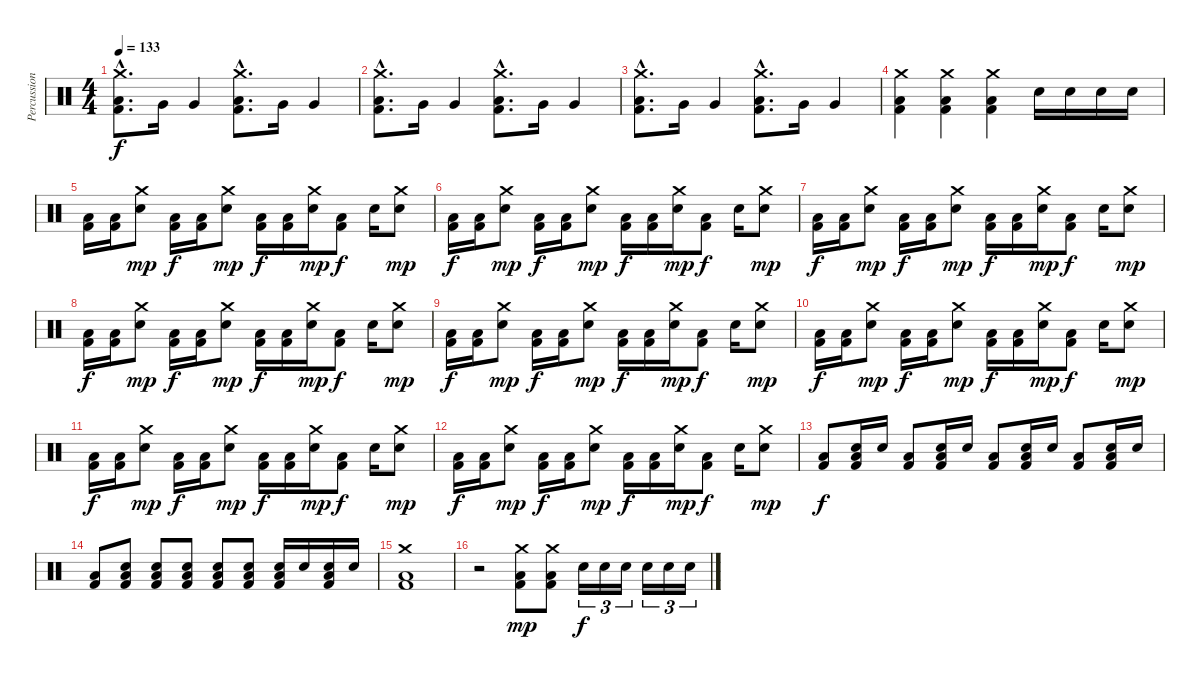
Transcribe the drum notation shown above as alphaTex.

\track ("Percussions" "Percussion") {instrument percussion}
\staff {score}
\articulation defaults
\ts (4 4)
\tempo 133
\clef neutral
\ks c
("Kick (hit) 2"{hac} "Low Floor Tom (hit)"{hac} "Crash medium (hit)"{hac}).8{d dy f} "Very Low Tom (hit)".16 "Very Low Tom (hit)".4 ("Kick (hit) 2"{hac} "Low Floor Tom (hit)"{hac} "Crash medium (hit)"{hac}).8{d} "Very Low Tom (hit)".16 "Very Low Tom (hit)".4 |
("Kick (hit) 2"{hac} "Low Floor Tom (hit)"{hac} "Crash medium (hit)"{hac}).8{d} "Very Low Tom (hit)".16 "Very Low Tom (hit)".4 ("Kick (hit) 2"{hac} "Low Floor Tom (hit)"{hac} "Crash medium (hit)"{hac}).8{d} "Very Low Tom (hit)".16 "Very Low Tom (hit)".4 |
("Kick (hit) 2"{hac} "Low Floor Tom (hit)"{hac} "Crash medium (hit)"{hac}).8{d} "Very Low Tom (hit)".16 "Very Low Tom (hit)".4 ("Kick (hit) 2"{hac} "Low Floor Tom (hit)"{hac} "Crash medium (hit)"{hac}).8{d} "Very Low Tom (hit)".16 "Very Low Tom (hit)".4 |
("Kick (hit) 2" "Low Floor Tom (hit)" "Crash medium (hit)").4 ("Kick (hit) 2" "Low Floor Tom (hit)" "Crash medium (hit)").4 ("Kick (hit) 2" "Low Floor Tom (hit)" "Crash medium (hit)").4 "Electric Snare (hit)".16 "Electric Snare (hit)".16 "Electric Snare (hit)".16 "Electric Snare (hit)".16 |
("Kick (hit) 2" "Low Floor Tom (hit)").16 ("Kick (hit) 2" "Low Floor Tom (hit)").16 ("Electric Snare (hit)" "Crash medium (hit)").8{dy mp} ("Kick (hit) 2" "Low Floor Tom (hit)").16{dy f} ("Kick (hit) 2" "Low Floor Tom (hit)").16 ("Electric Snare (hit)" "Crash medium (hit)").8{dy mp} ("Kick (hit) 2" "Low Floor Tom (hit)").16{dy f} ("Kick (hit) 2" "Low Floor Tom (hit)").16 ("Electric Snare (hit)" "Crash medium (hit)").16{dy mp} ("Kick (hit) 2" "Low Floor Tom (hit)").8{dy f} "Electric Snare (hit)".16 ("Electric Snare (hit)" "Crash medium (hit)").8{dy mp} |
("Kick (hit) 2" "Low Floor Tom (hit)").16{dy f} ("Kick (hit) 2" "Low Floor Tom (hit)").16 ("Electric Snare (hit)" "Crash medium (hit)").8{dy mp} ("Kick (hit) 2" "Low Floor Tom (hit)").16{dy f} ("Kick (hit) 2" "Low Floor Tom (hit)").16 ("Electric Snare (hit)" "Crash medium (hit)").8{dy mp} ("Kick (hit) 2" "Low Floor Tom (hit)").16{dy f} ("Kick (hit) 2" "Low Floor Tom (hit)").16 ("Electric Snare (hit)" "Crash medium (hit)").16{dy mp} ("Kick (hit) 2" "Low Floor Tom (hit)").8{dy f} "Electric Snare (hit)".16 ("Electric Snare (hit)" "Crash medium (hit)").8{dy mp} |
("Kick (hit) 2" "Low Floor Tom (hit)").16{dy f} ("Kick (hit) 2" "Low Floor Tom (hit)").16 ("Electric Snare (hit)" "Crash medium (hit)").8{dy mp} ("Kick (hit) 2" "Low Floor Tom (hit)").16{dy f} ("Kick (hit) 2" "Low Floor Tom (hit)").16 ("Electric Snare (hit)" "Crash medium (hit)").8{dy mp} ("Kick (hit) 2" "Low Floor Tom (hit)").16{dy f} ("Kick (hit) 2" "Low Floor Tom (hit)").16 ("Electric Snare (hit)" "Crash medium (hit)").16{dy mp} ("Kick (hit) 2" "Low Floor Tom (hit)").8{dy f} "Electric Snare (hit)".16 ("Electric Snare (hit)" "Crash medium (hit)").8{dy mp} |
("Kick (hit) 2" "Low Floor Tom (hit)").16{dy f} ("Kick (hit) 2" "Low Floor Tom (hit)").16 ("Electric Snare (hit)" "Crash medium (hit)").8{dy mp} ("Kick (hit) 2" "Low Floor Tom (hit)").16{dy f} ("Kick (hit) 2" "Low Floor Tom (hit)").16 ("Electric Snare (hit)" "Crash medium (hit)").8{dy mp} ("Kick (hit) 2" "Low Floor Tom (hit)").16{dy f} ("Kick (hit) 2" "Low Floor Tom (hit)").16 ("Electric Snare (hit)" "Crash medium (hit)").16{dy mp} ("Kick (hit) 2" "Low Floor Tom (hit)").8{dy f} "Electric Snare (hit)".16 ("Electric Snare (hit)" "Crash medium (hit)").8{dy mp} |
("Kick (hit) 2" "Low Floor Tom (hit)").16{dy f} ("Kick (hit) 2" "Low Floor Tom (hit)").16 ("Electric Snare (hit)" "Crash medium (hit)").8{dy mp} ("Kick (hit) 2" "Low Floor Tom (hit)").16{dy f} ("Kick (hit) 2" "Low Floor Tom (hit)").16 ("Electric Snare (hit)" "Crash medium (hit)").8{dy mp} ("Kick (hit) 2" "Low Floor Tom (hit)").16{dy f} ("Kick (hit) 2" "Low Floor Tom (hit)").16 ("Electric Snare (hit)" "Crash medium (hit)").16{dy mp} ("Kick (hit) 2" "Low Floor Tom (hit)").8{dy f} "Electric Snare (hit)".16 ("Electric Snare (hit)" "Crash medium (hit)").8{dy mp} |
("Kick (hit) 2" "Low Floor Tom (hit)").16{dy f} ("Kick (hit) 2" "Low Floor Tom (hit)").16 ("Electric Snare (hit)" "Crash medium (hit)").8{dy mp} ("Kick (hit) 2" "Low Floor Tom (hit)").16{dy f} ("Kick (hit) 2" "Low Floor Tom (hit)").16 ("Electric Snare (hit)" "Crash medium (hit)").8{dy mp} ("Kick (hit) 2" "Low Floor Tom (hit)").16{dy f} ("Kick (hit) 2" "Low Floor Tom (hit)").16 ("Electric Snare (hit)" "Crash medium (hit)").16{dy mp} ("Kick (hit) 2" "Low Floor Tom (hit)").8{dy f} "Electric Snare (hit)".16 ("Electric Snare (hit)" "Crash medium (hit)").8{dy mp} |
("Kick (hit) 2" "Low Floor Tom (hit)").16{dy f} ("Kick (hit) 2" "Low Floor Tom (hit)").16 ("Electric Snare (hit)" "Crash medium (hit)").8{dy mp} ("Kick (hit) 2" "Low Floor Tom (hit)").16{dy f} ("Kick (hit) 2" "Low Floor Tom (hit)").16 ("Electric Snare (hit)" "Crash medium (hit)").8{dy mp} ("Kick (hit) 2" "Low Floor Tom (hit)").16{dy f} ("Kick (hit) 2" "Low Floor Tom (hit)").16 ("Electric Snare (hit)" "Crash medium (hit)").16{dy mp} ("Kick (hit) 2" "Low Floor Tom (hit)").8{dy f} "Electric Snare (hit)".16 ("Electric Snare (hit)" "Crash medium (hit)").8{dy mp} |
("Kick (hit) 2" "Low Floor Tom (hit)").16{dy f} ("Kick (hit) 2" "Low Floor Tom (hit)").16 ("Electric Snare (hit)" "Crash medium (hit)").8{dy mp} ("Kick (hit) 2" "Low Floor Tom (hit)").16{dy f} ("Kick (hit) 2" "Low Floor Tom (hit)").16 ("Electric Snare (hit)" "Crash medium (hit)").8{dy mp} ("Kick (hit) 2" "Low Floor Tom (hit)").16{dy f} ("Kick (hit) 2" "Low Floor Tom (hit)").16 ("Electric Snare (hit)" "Crash medium (hit)").16{dy mp} ("Kick (hit) 2" "Low Floor Tom (hit)").8{dy f} "Electric Snare (hit)".16 ("Electric Snare (hit)" "Crash medium (hit)").8{dy mp} |
("Kick (hit) 2" "Low Floor Tom (hit)").8{dy f} ("Kick (hit) 2" "Low Floor Tom (hit)" "Electric Snare (hit)").16 "Electric Snare (hit)".16 ("Kick (hit) 2" "Low Floor Tom (hit)").8 ("Kick (hit) 2" "Low Floor Tom (hit)" "Electric Snare (hit)").16 "Electric Snare (hit)".16 ("Kick (hit) 2" "Low Floor Tom (hit)").8 ("Kick (hit) 2" "Low Floor Tom (hit)" "Electric Snare (hit)").16 "Electric Snare (hit)".16 ("Kick (hit) 2" "Low Floor Tom (hit)").8 ("Kick (hit) 2" "Low Floor Tom (hit)" "Electric Snare (hit)").16 "Electric Snare (hit)".16 |
("Kick (hit) 2" "Low Floor Tom (hit)").8 ("Kick (hit) 2" "Low Floor Tom (hit)" "Electric Snare (hit)").8 ("Kick (hit) 2" "Low Floor Tom (hit)" "Electric Snare (hit)").8 ("Kick (hit) 2" "Low Floor Tom (hit)" "Electric Snare (hit)").8 ("Kick (hit) 2" "Low Floor Tom (hit)" "Electric Snare (hit)").8 ("Kick (hit) 2" "Low Floor Tom (hit)" "Electric Snare (hit)").8 ("Kick (hit) 2" "Low Floor Tom (hit)" "Electric Snare (hit)").16 "Electric Snare (hit)".16 ("Kick (hit) 2" "Low Floor Tom (hit)" "Electric Snare (hit)").16 "Electric Snare (hit)".16 |
("Kick (hit) 2" "Low Floor Tom (hit)" "Crash medium (hit)").1 |
r.2 ("Kick (hit) 2" "Low Floor Tom (hit)" "Crash medium (hit)").8{dy mp} ("Kick (hit) 2" "Low Floor Tom (hit)" "Crash medium (hit)").8 "Electric Snare (hit)".16{tu (3 2) dy f} "Electric Snare (hit)".16{tu (3 2)} "Electric Snare (hit)".16{tu (3 2)} "Electric Snare (hit)".16{tu (3 2)} "Electric Snare (hit)".16{tu (3 2)} "Electric Snare (hit)".16{tu (3 2)}
